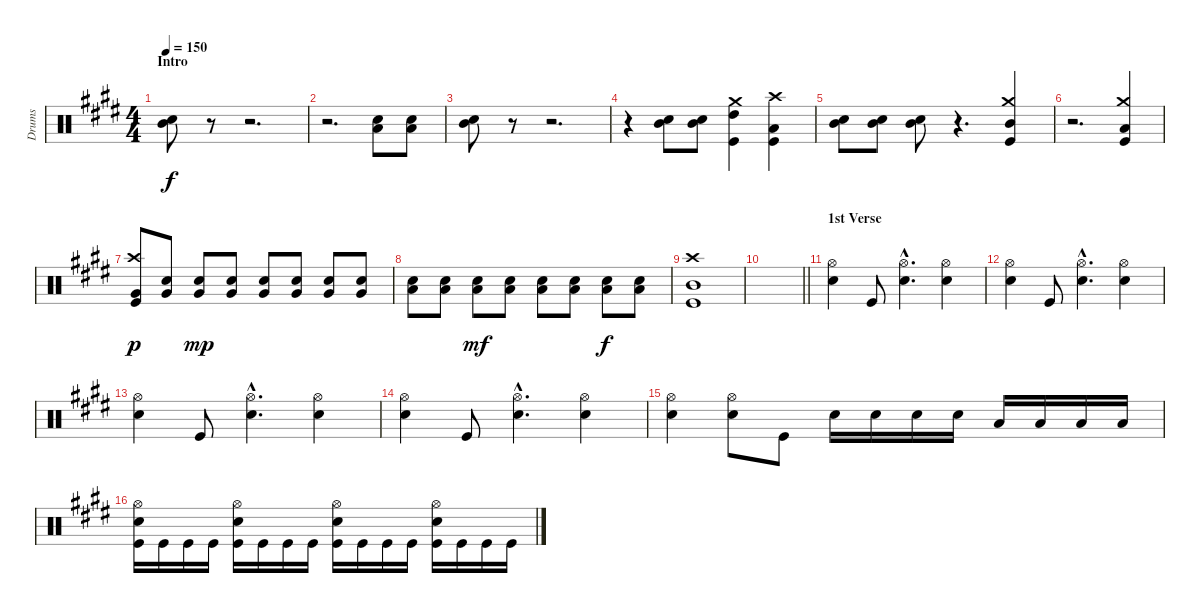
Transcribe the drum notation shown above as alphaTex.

\track ("Drums" "Drums") {instrument percussion}
\staff {score}
\articulation defaults
\ts (4 4)
\section ("" "Intro")
\tempo 150
\clef neutral
\ks c#minor
("Snare (hit) 2" "Mid Tom (hit)").8{dy f} r.8 r.2{d} |
r.2{d} ("Snare (hit) 2" "Low Tom (hit)").8 ("Snare (hit) 2" "Low Tom (hit)").8 |
("Snare (hit) 2" "Mid Tom (hit)").8 r.8 r.2{d} |
r.4 ("Snare (hit) 2" "Mid Tom (hit)").8 ("Snare (hit) 2" "Mid Tom (hit)").8 ("Crash medium (hit)" "High Tom (hit)" "Kick (hit)").4 ("Crash high (hit)" "Low Tom (hit)" "Kick (hit)").4 |
("Snare (hit) 2" "Mid Tom (hit)").8 ("Snare (hit) 2" "Mid Tom (hit)").8 ("Snare (hit) 2" "Mid Tom (hit)").8 r.4{d} ("Crash medium (hit)" "Mid Tom (hit)" "Kick (hit)").4 |
r.2{d} ("Crash medium (hit)" "Low Tom (hit)" "Kick (hit)").4 |
("Crash high (hit)" "Very Low Tom (hit)" "Kick (hit)").8{dy p} ("Snare (hit) 2" "Very Low Tom (hit)").8 ("Snare (hit) 2" "Very Low Tom (hit)").8{dy mp} ("Snare (hit) 2" "Very Low Tom (hit)").8 ("Snare (hit) 2" "Very Low Tom (hit)").8 ("Snare (hit) 2" "Very Low Tom (hit)").8 ("Snare (hit) 2" "Very Low Tom (hit)").8 ("Snare (hit) 2" "Very Low Tom (hit)").8 |
("Snare (hit) 2" "Low Tom (hit)").8 ("Snare (hit) 2" "Low Tom (hit)").8 ("Snare (hit) 2" "Low Tom (hit)").8{dy mf} ("Snare (hit) 2" "Low Tom (hit)").8 ("Snare (hit) 2" "Low Tom (hit)").8 ("Snare (hit) 2" "Low Tom (hit)").8 ("Snare (hit) 2" "Low Tom (hit)").8{dy f} ("Snare (hit) 2" "Low Tom (hit)").8 |
("Crash high (hit)" "Mid Tom (hit)" "Kick (hit)").1 |
\barLineRight lightlight
|
\section ("" "1st Verse")
("Snare (hit) 2" "Hi-Hat (open)").4 "Kick (hit)".8 ("Snare (hit) 2"{hac} "Hi-Hat (open)"{hac}).4{d} ("Snare (hit) 2" "Hi-Hat (open)").4 |
("Snare (hit) 2" "Hi-Hat (open)").4 "Kick (hit)".8 ("Snare (hit) 2"{hac} "Hi-Hat (open)"{hac}).4{d} ("Snare (hit) 2" "Hi-Hat (open)").4 |
("Snare (hit) 2" "Hi-Hat (open)").4 "Kick (hit)".8 ("Snare (hit) 2"{hac} "Hi-Hat (open)"{hac}).4{d} ("Snare (hit) 2" "Hi-Hat (open)").4 |
("Snare (hit) 2" "Hi-Hat (open)").4 "Kick (hit)".8 ("Snare (hit) 2"{hac} "Hi-Hat (open)"{hac}).4{d} ("Snare (hit) 2" "Hi-Hat (open)").4 |
("Snare (hit) 2" "Hi-Hat (open)").4 ("Snare (hit) 2" "Hi-Hat (open)").8 "Kick (hit)".8 "Snare (hit) 2".16 "Snare (hit) 2".16 "Snare (hit) 2".16 "Snare (hit) 2".16 "Low Tom (hit)".16 "Low Tom (hit)".16 "Low Tom (hit)".16 "Low Tom (hit)".16 |
("Snare (hit) 2" "Hi-Hat (open)" "Kick (hit)").16 "Kick (hit)".16 "Kick (hit)".16 "Kick (hit)".16 ("Snare (hit) 2" "Hi-Hat (open)" "Kick (hit)").16 "Kick (hit)".16 "Kick (hit)".16 "Kick (hit)".16 ("Snare (hit) 2" "Hi-Hat (open)" "Kick (hit)").16 "Kick (hit)".16 "Kick (hit)".16 "Kick (hit)".16 ("Snare (hit) 2" "Hi-Hat (open)" "Kick (hit)").16 "Kick (hit)".16 "Kick (hit)".16 "Kick (hit)".16
